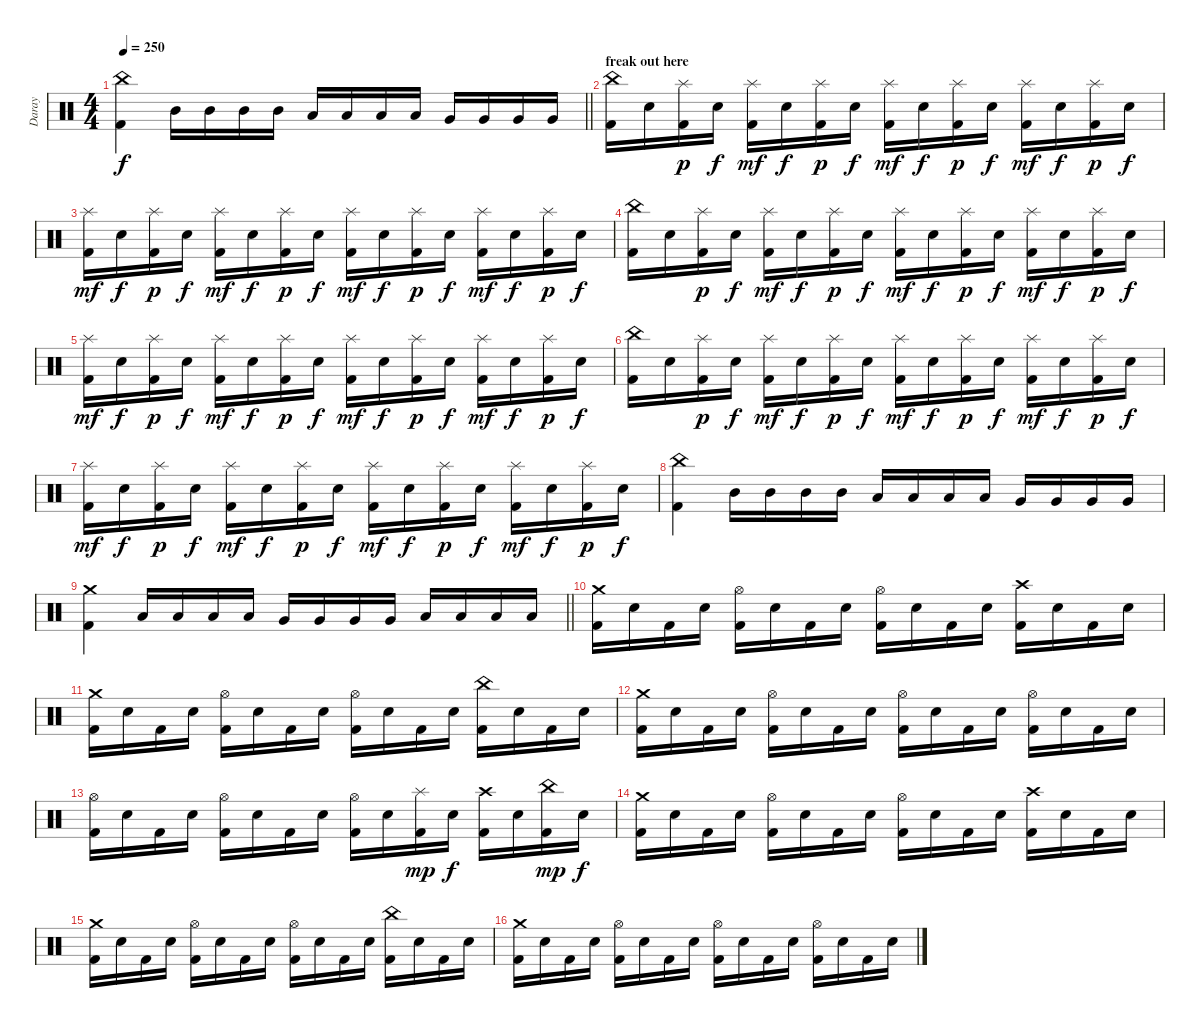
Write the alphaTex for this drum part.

\track ("Daray" "Daray") {instrument percussion}
\staff {score}
\articulation defaults
\ts (4 4)
\tempo 250
\clef neutral
\barLineRight lightlight
\ks c
("China (hit)" "Kick (hit) 2").4{dy f} "Mid Tom (hit)".16 "Mid Tom (hit)".16 "Mid Tom (hit)".16 "Mid Tom (hit)".16 "Low Tom (hit)".16 "Low Tom (hit)".16 "Low Tom (hit)".16 "Low Tom (hit)".16 "Very Low Tom (hit)".16 "Very Low Tom (hit)".16 "Very Low Tom (hit)".16 "Very Low Tom (hit)".16 |
\section ("" "freak out here")
("China (hit)" "Kick (hit) 2").16 "Electric Snare (hit)".16 ("Splash (hit)" "Kick (hit) 2").16{dy p} "Electric Snare (hit)".16{dy f} ("Splash (hit)" "Kick (hit) 2").16{dy mf} "Electric Snare (hit)".16{dy f} ("Splash (hit)" "Kick (hit) 2").16{dy p} "Electric Snare (hit)".16{dy f} ("Splash (hit)" "Kick (hit) 2").16{dy mf} "Electric Snare (hit)".16{dy f} ("Splash (hit)" "Kick (hit) 2").16{dy p} "Electric Snare (hit)".16{dy f} ("Splash (hit)" "Kick (hit) 2").16{dy mf} "Electric Snare (hit)".16{dy f} ("Splash (hit)" "Kick (hit) 2").16{dy p} "Electric Snare (hit)".16{dy f} |
("Splash (hit)" "Kick (hit) 2").16{dy mf} "Electric Snare (hit)".16{dy f} ("Splash (hit)" "Kick (hit) 2").16{dy p} "Electric Snare (hit)".16{dy f} ("Splash (hit)" "Kick (hit) 2").16{dy mf} "Electric Snare (hit)".16{dy f} ("Splash (hit)" "Kick (hit) 2").16{dy p} "Electric Snare (hit)".16{dy f} ("Splash (hit)" "Kick (hit) 2").16{dy mf} "Electric Snare (hit)".16{dy f} ("Splash (hit)" "Kick (hit) 2").16{dy p} "Electric Snare (hit)".16{dy f} ("Splash (hit)" "Kick (hit) 2").16{dy mf} "Electric Snare (hit)".16{dy f} ("Splash (hit)" "Kick (hit) 2").16{dy p} "Electric Snare (hit)".16{dy f} |
("China (hit)" "Kick (hit) 2").16 "Electric Snare (hit)".16 ("Splash (hit)" "Kick (hit) 2").16{dy p} "Electric Snare (hit)".16{dy f} ("Splash (hit)" "Kick (hit) 2").16{dy mf} "Electric Snare (hit)".16{dy f} ("Splash (hit)" "Kick (hit) 2").16{dy p} "Electric Snare (hit)".16{dy f} ("Splash (hit)" "Kick (hit) 2").16{dy mf} "Electric Snare (hit)".16{dy f} ("Splash (hit)" "Kick (hit) 2").16{dy p} "Electric Snare (hit)".16{dy f} ("Splash (hit)" "Kick (hit) 2").16{dy mf} "Electric Snare (hit)".16{dy f} ("Splash (hit)" "Kick (hit) 2").16{dy p} "Electric Snare (hit)".16{dy f} |
("Splash (hit)" "Kick (hit) 2").16{dy mf} "Electric Snare (hit)".16{dy f} ("Splash (hit)" "Kick (hit) 2").16{dy p} "Electric Snare (hit)".16{dy f} ("Splash (hit)" "Kick (hit) 2").16{dy mf} "Electric Snare (hit)".16{dy f} ("Splash (hit)" "Kick (hit) 2").16{dy p} "Electric Snare (hit)".16{dy f} ("Splash (hit)" "Kick (hit) 2").16{dy mf} "Electric Snare (hit)".16{dy f} ("Splash (hit)" "Kick (hit) 2").16{dy p} "Electric Snare (hit)".16{dy f} ("Splash (hit)" "Kick (hit) 2").16{dy mf} "Electric Snare (hit)".16{dy f} ("Splash (hit)" "Kick (hit) 2").16{dy p} "Electric Snare (hit)".16{dy f} |
("China (hit)" "Kick (hit) 2").16 "Electric Snare (hit)".16 ("Splash (hit)" "Kick (hit) 2").16{dy p} "Electric Snare (hit)".16{dy f} ("Splash (hit)" "Kick (hit) 2").16{dy mf} "Electric Snare (hit)".16{dy f} ("Splash (hit)" "Kick (hit) 2").16{dy p} "Electric Snare (hit)".16{dy f} ("Splash (hit)" "Kick (hit) 2").16{dy mf} "Electric Snare (hit)".16{dy f} ("Splash (hit)" "Kick (hit) 2").16{dy p} "Electric Snare (hit)".16{dy f} ("Splash (hit)" "Kick (hit) 2").16{dy mf} "Electric Snare (hit)".16{dy f} ("Splash (hit)" "Kick (hit) 2").16{dy p} "Electric Snare (hit)".16{dy f} |
("Splash (hit)" "Kick (hit) 2").16{dy mf} "Electric Snare (hit)".16{dy f} ("Splash (hit)" "Kick (hit) 2").16{dy p} "Electric Snare (hit)".16{dy f} ("Splash (hit)" "Kick (hit) 2").16{dy mf} "Electric Snare (hit)".16{dy f} ("Splash (hit)" "Kick (hit) 2").16{dy p} "Electric Snare (hit)".16{dy f} ("Splash (hit)" "Kick (hit) 2").16{dy mf} "Electric Snare (hit)".16{dy f} ("Splash (hit)" "Kick (hit) 2").16{dy p} "Electric Snare (hit)".16{dy f} ("Splash (hit)" "Kick (hit) 2").16{dy mf} "Electric Snare (hit)".16{dy f} ("Splash (hit)" "Kick (hit) 2").16{dy p} "Electric Snare (hit)".16{dy f} |
("China (hit)" "Kick (hit) 2").4 "Mid Tom (hit)".16 "Mid Tom (hit)".16 "Mid Tom (hit)".16 "Mid Tom (hit)".16 "Low Tom (hit)".16 "Low Tom (hit)".16 "Low Tom (hit)".16 "Low Tom (hit)".16 "Very Low Tom (hit)".16 "Very Low Tom (hit)".16 "Very Low Tom (hit)".16 "Very Low Tom (hit)".16 |
\barLineRight lightlight
("Crash medium (hit)" "Kick (hit) 2").4 "Low Tom (hit)".16 "Low Tom (hit)".16 "Low Tom (hit)".16 "Low Tom (hit)".16 "Very Low Tom (hit)".16 "Very Low Tom (hit)".16 "Very Low Tom (hit)".16 "Very Low Tom (hit)".16 "Low Floor Tom (hit)".16 "Low Floor Tom (hit)".16 "Low Floor Tom (hit)".16 "Low Floor Tom (hit)".16 |
("Crash medium (hit)" "Kick (hit) 2").16 "Electric Snare (hit)".16 "Kick (hit) 2".16 "Electric Snare (hit)".16 ("Hi-Hat (open)" "Kick (hit) 2").16 "Electric Snare (hit)".16 "Kick (hit) 2".16 "Electric Snare (hit)".16 ("Hi-Hat (open)" "Kick (hit) 2").16 "Electric Snare (hit)".16 "Kick (hit) 2".16 "Electric Snare (hit)".16 ("Crash high (hit)" "Kick (hit) 2").16 "Electric Snare (hit)".16 "Kick (hit) 2".16 "Electric Snare (hit)".16 |
("Crash medium (hit)" "Kick (hit) 2").16 "Electric Snare (hit)".16 "Kick (hit) 2".16 "Electric Snare (hit)".16 ("Hi-Hat (open)" "Kick (hit) 2").16 "Electric Snare (hit)".16 "Kick (hit) 2".16 "Electric Snare (hit)".16 ("Hi-Hat (open)" "Kick (hit) 2").16 "Electric Snare (hit)".16 "Kick (hit) 2".16 "Electric Snare (hit)".16 ("China (hit)" "Kick (hit) 2").16 "Electric Snare (hit)".16 "Kick (hit) 2".16 "Electric Snare (hit)".16 |
("Crash medium (hit)" "Kick (hit) 2").16 "Electric Snare (hit)".16 "Kick (hit) 2".16 "Electric Snare (hit)".16 ("Hi-Hat (open)" "Kick (hit) 2").16 "Electric Snare (hit)".16 "Kick (hit) 2".16 "Electric Snare (hit)".16 ("Hi-Hat (open)" "Kick (hit) 2").16 "Electric Snare (hit)".16 "Kick (hit) 2".16 "Electric Snare (hit)".16 ("Hi-Hat (open)" "Kick (hit) 2").16 "Electric Snare (hit)".16 "Kick (hit) 2".16 "Electric Snare (hit)".16 |
("Hi-Hat (open)" "Kick (hit) 2").16 "Electric Snare (hit)".16 "Kick (hit) 2".16 "Electric Snare (hit)".16 ("Hi-Hat (open)" "Kick (hit) 2").16 "Electric Snare (hit)".16 "Kick (hit) 2".16 "Electric Snare (hit)".16 ("Hi-Hat (open)" "Kick (hit) 2").16 "Electric Snare (hit)".16 ("Splash (hit)" "Kick (hit) 2").16{dy mp} "Electric Snare (hit)".16{dy f} ("Crash high (hit)" "Kick (hit) 2").16 "Electric Snare (hit)".16 ("China (hit)" "Kick (hit) 2").16{dy mp} "Electric Snare (hit)".16{dy f} |
("Crash medium (hit)" "Kick (hit) 2").16 "Electric Snare (hit)".16 "Kick (hit) 2".16 "Electric Snare (hit)".16 ("Hi-Hat (open)" "Kick (hit) 2").16 "Electric Snare (hit)".16 "Kick (hit) 2".16 "Electric Snare (hit)".16 ("Hi-Hat (open)" "Kick (hit) 2").16 "Electric Snare (hit)".16 "Kick (hit) 2".16 "Electric Snare (hit)".16 ("Crash high (hit)" "Kick (hit) 2").16 "Electric Snare (hit)".16 "Kick (hit) 2".16 "Electric Snare (hit)".16 |
("Crash medium (hit)" "Kick (hit) 2").16 "Electric Snare (hit)".16 "Kick (hit) 2".16 "Electric Snare (hit)".16 ("Hi-Hat (open)" "Kick (hit) 2").16 "Electric Snare (hit)".16 "Kick (hit) 2".16 "Electric Snare (hit)".16 ("Hi-Hat (open)" "Kick (hit) 2").16 "Electric Snare (hit)".16 "Kick (hit) 2".16 "Electric Snare (hit)".16 ("China (hit)" "Kick (hit) 2").16 "Electric Snare (hit)".16 "Kick (hit) 2".16 "Electric Snare (hit)".16 |
("Crash medium (hit)" "Kick (hit) 2").16 "Electric Snare (hit)".16 "Kick (hit) 2".16 "Electric Snare (hit)".16 ("Hi-Hat (open)" "Kick (hit) 2").16 "Electric Snare (hit)".16 "Kick (hit) 2".16 "Electric Snare (hit)".16 ("Hi-Hat (open)" "Kick (hit) 2").16 "Electric Snare (hit)".16 "Kick (hit) 2".16 "Electric Snare (hit)".16 ("Hi-Hat (open)" "Kick (hit) 2").16 "Electric Snare (hit)".16 "Kick (hit) 2".16 "Electric Snare (hit)".16
